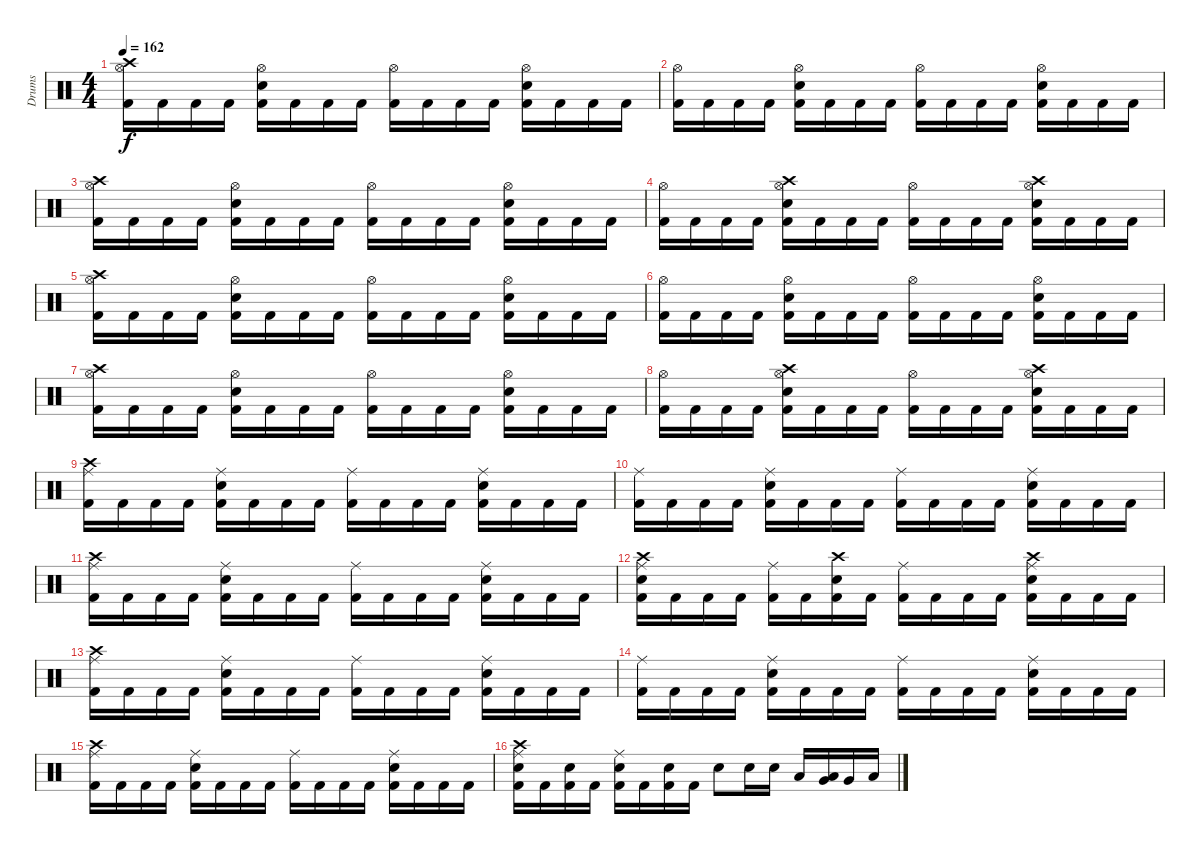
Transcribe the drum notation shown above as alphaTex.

\track ("Drums" "Drums") {instrument percussion}
\staff {score}
\articulation defaults
\ts (4 4)
\tempo 162
\clef neutral
\ks c
("Hi-Hat (open)" "Kick (hit) 2" "Crash high (hit)").16{dy f} "Kick (hit) 2".16 "Kick (hit) 2".16 "Kick (hit) 2".16 ("Hi-Hat (open)" "Electric Snare (hit)" "Kick (hit) 2").16 "Kick (hit) 2".16 "Kick (hit) 2".16 "Kick (hit) 2".16 ("Hi-Hat (open)" "Kick (hit) 2").16 "Kick (hit) 2".16 "Kick (hit) 2".16 "Kick (hit) 2".16 ("Hi-Hat (open)" "Electric Snare (hit)" "Kick (hit) 2").16 "Kick (hit) 2".16 "Kick (hit) 2".16 "Kick (hit) 2".16 |
("Hi-Hat (open)" "Kick (hit) 2").16 "Kick (hit) 2".16 "Kick (hit) 2".16 "Kick (hit) 2".16 ("Hi-Hat (open)" "Electric Snare (hit)" "Kick (hit) 2").16 "Kick (hit) 2".16 "Kick (hit) 2".16 "Kick (hit) 2".16 ("Hi-Hat (open)" "Kick (hit) 2").16 "Kick (hit) 2".16 "Kick (hit) 2".16 "Kick (hit) 2".16 ("Hi-Hat (open)" "Electric Snare (hit)" "Kick (hit) 2").16 "Kick (hit) 2".16 "Kick (hit) 2".16 "Kick (hit) 2".16 |
("Hi-Hat (open)" "Kick (hit) 2" "Crash high (hit)").16 "Kick (hit) 2".16 "Kick (hit) 2".16 "Kick (hit) 2".16 ("Hi-Hat (open)" "Electric Snare (hit)" "Kick (hit) 2").16 "Kick (hit) 2".16 "Kick (hit) 2".16 "Kick (hit) 2".16 ("Hi-Hat (open)" "Kick (hit) 2").16 "Kick (hit) 2".16 "Kick (hit) 2".16 "Kick (hit) 2".16 ("Hi-Hat (open)" "Electric Snare (hit)" "Kick (hit) 2").16 "Kick (hit) 2".16 "Kick (hit) 2".16 "Kick (hit) 2".16 |
("Hi-Hat (open)" "Kick (hit) 2").16 "Kick (hit) 2".16 "Kick (hit) 2".16 "Kick (hit) 2".16 ("Crash high (hit)" "Hi-Hat (open)" "Electric Snare (hit)" "Kick (hit) 2").16 "Kick (hit) 2".16 "Kick (hit) 2".16 "Kick (hit) 2".16 ("Hi-Hat (open)" "Kick (hit) 2").16 "Kick (hit) 2".16 "Kick (hit) 2".16 "Kick (hit) 2".16 ("Crash high (hit)" "Hi-Hat (open)" "Electric Snare (hit)" "Kick (hit) 2").16 "Kick (hit) 2".16 "Kick (hit) 2".16 "Kick (hit) 2".16 |
("Hi-Hat (open)" "Kick (hit) 2" "Crash high (hit)").16 "Kick (hit) 2".16 "Kick (hit) 2".16 "Kick (hit) 2".16 ("Hi-Hat (open)" "Electric Snare (hit)" "Kick (hit) 2").16 "Kick (hit) 2".16 "Kick (hit) 2".16 "Kick (hit) 2".16 ("Hi-Hat (open)" "Kick (hit) 2").16 "Kick (hit) 2".16 "Kick (hit) 2".16 "Kick (hit) 2".16 ("Hi-Hat (open)" "Electric Snare (hit)" "Kick (hit) 2").16 "Kick (hit) 2".16 "Kick (hit) 2".16 "Kick (hit) 2".16 |
("Hi-Hat (open)" "Kick (hit) 2").16 "Kick (hit) 2".16 "Kick (hit) 2".16 "Kick (hit) 2".16 ("Hi-Hat (open)" "Electric Snare (hit)" "Kick (hit) 2").16 "Kick (hit) 2".16 "Kick (hit) 2".16 "Kick (hit) 2".16 ("Hi-Hat (open)" "Kick (hit) 2").16 "Kick (hit) 2".16 "Kick (hit) 2".16 "Kick (hit) 2".16 ("Hi-Hat (open)" "Electric Snare (hit)" "Kick (hit) 2").16 "Kick (hit) 2".16 "Kick (hit) 2".16 "Kick (hit) 2".16 |
("Hi-Hat (open)" "Kick (hit) 2" "Crash high (hit)").16 "Kick (hit) 2".16 "Kick (hit) 2".16 "Kick (hit) 2".16 ("Hi-Hat (open)" "Electric Snare (hit)" "Kick (hit) 2").16 "Kick (hit) 2".16 "Kick (hit) 2".16 "Kick (hit) 2".16 ("Hi-Hat (open)" "Kick (hit) 2").16 "Kick (hit) 2".16 "Kick (hit) 2".16 "Kick (hit) 2".16 ("Hi-Hat (open)" "Electric Snare (hit)" "Kick (hit) 2").16 "Kick (hit) 2".16 "Kick (hit) 2".16 "Kick (hit) 2".16 |
("Hi-Hat (open)" "Kick (hit) 2").16 "Kick (hit) 2".16 "Kick (hit) 2".16 "Kick (hit) 2".16 ("Crash high (hit)" "Hi-Hat (open)" "Electric Snare (hit)" "Kick (hit) 2").16 "Kick (hit) 2".16 "Kick (hit) 2".16 "Kick (hit) 2".16 ("Hi-Hat (open)" "Kick (hit) 2").16 "Kick (hit) 2".16 "Kick (hit) 2".16 "Kick (hit) 2".16 ("Crash high (hit)" "Hi-Hat (open)" "Electric Snare (hit)" "Kick (hit) 2").16 "Kick (hit) 2".16 "Kick (hit) 2".16 "Kick (hit) 2".16 |
("Ride (middle)" "Kick (hit) 2" "Crash high (hit)").16 "Kick (hit) 2".16 "Kick (hit) 2".16 "Kick (hit) 2".16 ("Ride (middle)" "Electric Snare (hit)" "Kick (hit) 2").16 "Kick (hit) 2".16 "Kick (hit) 2".16 "Kick (hit) 2".16 ("Ride (middle)" "Kick (hit) 2").16 "Kick (hit) 2".16 "Kick (hit) 2".16 "Kick (hit) 2".16 ("Ride (middle)" "Electric Snare (hit)" "Kick (hit) 2").16 "Kick (hit) 2".16 "Kick (hit) 2".16 "Kick (hit) 2".16 |
("Ride (middle)" "Kick (hit) 2").16 "Kick (hit) 2".16 "Kick (hit) 2".16 "Kick (hit) 2".16 ("Ride (middle)" "Electric Snare (hit)" "Kick (hit) 2").16 "Kick (hit) 2".16 "Kick (hit) 2".16 "Kick (hit) 2".16 ("Ride (middle)" "Kick (hit) 2").16 "Kick (hit) 2".16 "Kick (hit) 2".16 "Kick (hit) 2".16 ("Ride (middle)" "Electric Snare (hit)" "Kick (hit) 2").16 "Kick (hit) 2".16 "Kick (hit) 2".16 "Kick (hit) 2".16 |
("Crash high (hit)" "Ride (middle)" "Kick (hit) 2").16 "Kick (hit) 2".16 "Kick (hit) 2".16 "Kick (hit) 2".16 ("Ride (middle)" "Electric Snare (hit)" "Kick (hit) 2").16 "Kick (hit) 2".16 "Kick (hit) 2".16 "Kick (hit) 2".16 ("Ride (middle)" "Kick (hit) 2").16 "Kick (hit) 2".16 "Kick (hit) 2".16 "Kick (hit) 2".16 ("Ride (middle)" "Electric Snare (hit)" "Kick (hit) 2").16 "Kick (hit) 2".16 "Kick (hit) 2".16 "Kick (hit) 2".16 |
("Crash high (hit)" "Electric Snare (hit)" "Ride (middle)" "Kick (hit) 2").16 "Kick (hit) 2".16 "Kick (hit) 2".16 "Kick (hit) 2".16 ("Ride (middle)" "Kick (hit) 2").16 "Kick (hit) 2".16 ("Crash high (hit)" "Electric Snare (hit)" "Kick (hit) 2").16 "Kick (hit) 2".16 ("Ride (middle)" "Kick (hit) 2").16 "Kick (hit) 2".16 "Kick (hit) 2".16 "Kick (hit) 2".16 ("Crash high (hit)" "Electric Snare (hit)" "Ride (middle)" "Kick (hit) 2").16 "Kick (hit) 2".16 "Kick (hit) 2".16 "Kick (hit) 2".16 |
("Crash high (hit)" "Ride (middle)" "Kick (hit) 2").16 "Kick (hit) 2".16 "Kick (hit) 2".16 "Kick (hit) 2".16 ("Ride (middle)" "Electric Snare (hit)" "Kick (hit) 2").16 "Kick (hit) 2".16 "Kick (hit) 2".16 "Kick (hit) 2".16 ("Ride (middle)" "Kick (hit) 2").16 "Kick (hit) 2".16 "Kick (hit) 2".16 "Kick (hit) 2".16 ("Ride (middle)" "Electric Snare (hit)" "Kick (hit) 2").16 "Kick (hit) 2".16 "Kick (hit) 2".16 "Kick (hit) 2".16 |
("Ride (middle)" "Kick (hit) 2").16 "Kick (hit) 2".16 "Kick (hit) 2".16 "Kick (hit) 2".16 ("Ride (middle)" "Electric Snare (hit)" "Kick (hit) 2").16 "Kick (hit) 2".16 "Kick (hit) 2".16 "Kick (hit) 2".16 ("Ride (middle)" "Kick (hit) 2").16 "Kick (hit) 2".16 "Kick (hit) 2".16 "Kick (hit) 2".16 ("Ride (middle)" "Electric Snare (hit)" "Kick (hit) 2").16 "Kick (hit) 2".16 "Kick (hit) 2".16 "Kick (hit) 2".16 |
("Crash high (hit)" "Ride (middle)" "Kick (hit) 2").16 "Kick (hit) 2".16 "Kick (hit) 2".16 "Kick (hit) 2".16 ("Ride (middle)" "Electric Snare (hit)" "Kick (hit) 2").16 "Kick (hit) 2".16 "Kick (hit) 2".16 "Kick (hit) 2".16 ("Ride (middle)" "Kick (hit) 2").16 "Kick (hit) 2".16 "Kick (hit) 2".16 "Kick (hit) 2".16 ("Ride (middle)" "Electric Snare (hit)" "Kick (hit) 2").16 "Kick (hit) 2".16 "Kick (hit) 2".16 "Kick (hit) 2".16 |
("Crash high (hit)" "Electric Snare (hit)" "Ride (middle)" "Kick (hit) 2").16 "Kick (hit) 2".16 ("Electric Snare (hit)" "Kick (hit) 2").16 "Kick (hit) 2".16 ("Electric Snare (hit)" "Ride (middle)" "Kick (hit) 2").16 "Kick (hit) 2".16 ("Electric Snare (hit)" "Kick (hit) 2").16 "Kick (hit) 2".16 "Electric Snare (hit)".8 "Electric Snare (hit)".16 "Electric Snare (hit)".16 "Low Tom (hit)".16 ("Very Low Tom (hit)" "Low Tom (hit)").16 "Very Low Tom (hit)".16 "Low Floor Tom (hit)".16
